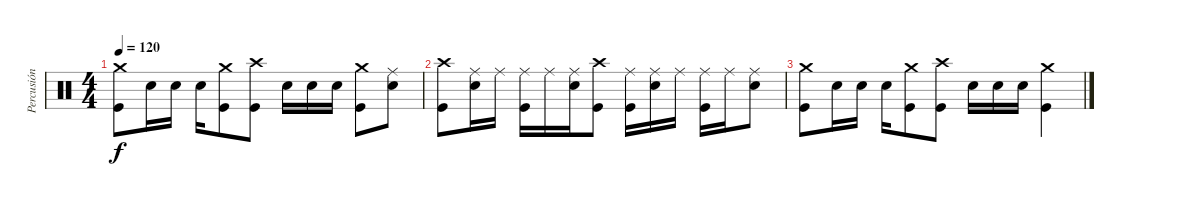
\track ("Percusión" "Percusión") {instrument percussion}
\staff {score}
\articulation defaults
\ts (4 4)
\tempo 120
\clef neutral
\ks c
("Kick (hit)" "Crash medium (hit)").8{dy f} "Snare (hit) 2".16 "Snare (hit) 2".16 "Snare (hit) 2".16 ("Kick (hit)" "Crash medium (hit)").8 ("Kick (hit)" "Crash high (hit)").8 "Snare (hit) 2".16 "Snare (hit) 2".16 "Snare (hit) 2".16 ("Kick (hit)" "Crash medium (hit)").8 ("Snare (hit) 2" "Ride (middle)").8 |
("Kick (hit)" "Crash high (hit)").8 ("Snare (hit) 2" "Ride (middle)").16 "Ride (middle)".16 ("Kick (hit)" "Ride (middle)").16 "Ride (middle)".16 ("Snare (hit) 2" "Ride (middle)").16 ("Kick (hit)" "Crash high (hit)").8 ("Kick (hit)" "Ride (middle)").16 ("Snare (hit) 2" "Ride (middle)").16 "Ride (middle)".16 ("Kick (hit)" "Ride (middle)").16 "Ride (middle)".16 ("Snare (hit) 2" "Ride (middle)").8 |
("Kick (hit)" "Crash medium (hit)").8 "Snare (hit) 2".16 "Snare (hit) 2".16 "Snare (hit) 2".16 ("Kick (hit)" "Crash medium (hit)").8 ("Kick (hit)" "Crash high (hit)").8 "Snare (hit) 2".16 "Snare (hit) 2".16 "Snare (hit) 2".16 ("Kick (hit)" "Crash medium (hit)").4
